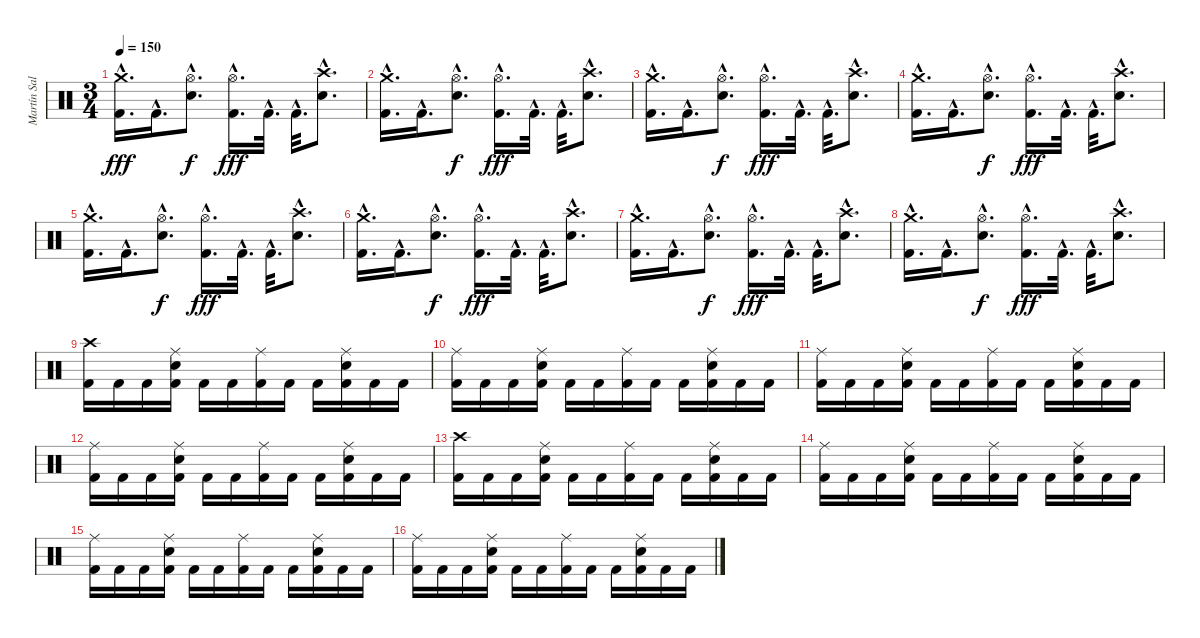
\track ("Martín Salariato" "Martín Sal") {instrument percussion}
\staff {score}
\articulation defaults
\ts (3 4)
\tempo 150
\clef neutral
\ks c
("Crash medium (hit)"{hac} "Kick (hit) 2"{hac}).16{d dy fff} "Kick (hit) 2"{hac}.16{d} ("Hi-Hat (open)"{hac} "Snare (hit) 2"{hac}).8{d dy f} ("Hi-Hat (open)"{hac} "Kick (hit) 2"{hac}).16{d dy fff} "Kick (hit) 2"{hac}.32{d} "Kick (hit) 2"{hac}.32{d} ("Crash high (hit)"{hac} "Snare (hit) 2"{hac}).8{d} |
("Crash medium (hit)"{hac} "Kick (hit) 2"{hac}).16{d} "Kick (hit) 2"{hac}.16{d} ("Hi-Hat (open)"{hac} "Snare (hit) 2"{hac}).8{d dy f} ("Hi-Hat (open)"{hac} "Kick (hit) 2"{hac}).16{d dy fff} "Kick (hit) 2"{hac}.32{d} "Kick (hit) 2"{hac}.32{d} ("Crash high (hit)"{hac} "Snare (hit) 2"{hac}).8{d} |
("Crash medium (hit)"{hac} "Kick (hit) 2"{hac}).16{d} "Kick (hit) 2"{hac}.16{d} ("Hi-Hat (open)"{hac} "Snare (hit) 2"{hac}).8{d dy f} ("Hi-Hat (open)"{hac} "Kick (hit) 2"{hac}).16{d dy fff} "Kick (hit) 2"{hac}.32{d} "Kick (hit) 2"{hac}.32{d} ("Crash high (hit)"{hac} "Snare (hit) 2"{hac}).8{d} |
("Crash medium (hit)"{hac} "Kick (hit) 2"{hac}).16{d} "Kick (hit) 2"{hac}.16{d} ("Hi-Hat (open)"{hac} "Snare (hit) 2"{hac}).8{d dy f} ("Hi-Hat (open)"{hac} "Kick (hit) 2"{hac}).16{d dy fff} "Kick (hit) 2"{hac}.32{d} "Kick (hit) 2"{hac}.32{d} ("Crash high (hit)"{hac} "Snare (hit) 2"{hac}).8{d} |
("Crash medium (hit)"{hac} "Kick (hit) 2"{hac}).16{d} "Kick (hit) 2"{hac}.16{d} ("Hi-Hat (open)"{hac} "Snare (hit) 2"{hac}).8{d dy f} ("Hi-Hat (open)"{hac} "Kick (hit) 2"{hac}).16{d dy fff} "Kick (hit) 2"{hac}.32{d} "Kick (hit) 2"{hac}.32{d} ("Crash high (hit)"{hac} "Snare (hit) 2"{hac}).8{d} |
("Crash medium (hit)"{hac} "Kick (hit) 2"{hac}).16{d} "Kick (hit) 2"{hac}.16{d} ("Hi-Hat (open)"{hac} "Snare (hit) 2"{hac}).8{d dy f} ("Hi-Hat (open)"{hac} "Kick (hit) 2"{hac}).16{d dy fff} "Kick (hit) 2"{hac}.32{d} "Kick (hit) 2"{hac}.32{d} ("Crash high (hit)"{hac} "Snare (hit) 2"{hac}).8{d} |
("Crash medium (hit)"{hac} "Kick (hit) 2"{hac}).16{d} "Kick (hit) 2"{hac}.16{d} ("Hi-Hat (open)"{hac} "Snare (hit) 2"{hac}).8{d dy f} ("Hi-Hat (open)"{hac} "Kick (hit) 2"{hac}).16{d dy fff} "Kick (hit) 2"{hac}.32{d} "Kick (hit) 2"{hac}.32{d} ("Crash high (hit)"{hac} "Snare (hit) 2"{hac}).8{d} |
("Crash medium (hit)"{hac} "Kick (hit) 2"{hac}).16{d} "Kick (hit) 2"{hac}.16{d} ("Hi-Hat (open)"{hac} "Snare (hit) 2"{hac}).8{d dy f} ("Hi-Hat (open)"{hac} "Kick (hit) 2"{hac}).16{d dy fff} "Kick (hit) 2"{hac}.32{d} "Kick (hit) 2"{hac}.32{d} ("Crash high (hit)"{hac} "Snare (hit) 2"{hac}).8{d} |
("Crash high (hit)" "Kick (hit) 2").16 "Kick (hit) 2".16 "Kick (hit) 2".16 ("Ride (middle)" "Snare (hit) 2" "Kick (hit) 2").16 "Kick (hit) 2".16 "Kick (hit) 2".16 ("Ride (middle)" "Kick (hit) 2").16 "Kick (hit) 2".16 "Kick (hit) 2".16 ("Ride (middle)" "Snare (hit) 2" "Kick (hit) 2").16 "Kick (hit) 2".16 "Kick (hit) 2".16 |
("Ride (middle)" "Kick (hit) 2").16 "Kick (hit) 2".16 "Kick (hit) 2".16 ("Ride (middle)" "Snare (hit) 2" "Kick (hit) 2").16 "Kick (hit) 2".16 "Kick (hit) 2".16 ("Ride (middle)" "Kick (hit) 2").16 "Kick (hit) 2".16 "Kick (hit) 2".16 ("Ride (middle)" "Snare (hit) 2" "Kick (hit) 2").16 "Kick (hit) 2".16 "Kick (hit) 2".16 |
("Ride (middle)" "Kick (hit) 2").16 "Kick (hit) 2".16 "Kick (hit) 2".16 ("Ride (middle)" "Snare (hit) 2" "Kick (hit) 2").16 "Kick (hit) 2".16 "Kick (hit) 2".16 ("Ride (middle)" "Kick (hit) 2").16 "Kick (hit) 2".16 "Kick (hit) 2".16 ("Ride (middle)" "Snare (hit) 2" "Kick (hit) 2").16 "Kick (hit) 2".16 "Kick (hit) 2".16 |
("Ride (middle)" "Kick (hit) 2").16 "Kick (hit) 2".16 "Kick (hit) 2".16 ("Ride (middle)" "Snare (hit) 2" "Kick (hit) 2").16 "Kick (hit) 2".16 "Kick (hit) 2".16 ("Ride (middle)" "Kick (hit) 2").16 "Kick (hit) 2".16 "Kick (hit) 2".16 ("Ride (middle)" "Snare (hit) 2" "Kick (hit) 2").16 "Kick (hit) 2".16 "Kick (hit) 2".16 |
("Crash high (hit)" "Kick (hit) 2").16 "Kick (hit) 2".16 "Kick (hit) 2".16 ("Ride (middle)" "Snare (hit) 2" "Kick (hit) 2").16 "Kick (hit) 2".16 "Kick (hit) 2".16 ("Ride (middle)" "Kick (hit) 2").16 "Kick (hit) 2".16 "Kick (hit) 2".16 ("Ride (middle)" "Snare (hit) 2" "Kick (hit) 2").16 "Kick (hit) 2".16 "Kick (hit) 2".16 |
("Ride (middle)" "Kick (hit) 2").16 "Kick (hit) 2".16 "Kick (hit) 2".16 ("Ride (middle)" "Snare (hit) 2" "Kick (hit) 2").16 "Kick (hit) 2".16 "Kick (hit) 2".16 ("Ride (middle)" "Kick (hit) 2").16 "Kick (hit) 2".16 "Kick (hit) 2".16 ("Ride (middle)" "Snare (hit) 2" "Kick (hit) 2").16 "Kick (hit) 2".16 "Kick (hit) 2".16 |
("Ride (middle)" "Kick (hit) 2").16 "Kick (hit) 2".16 "Kick (hit) 2".16 ("Ride (middle)" "Snare (hit) 2" "Kick (hit) 2").16 "Kick (hit) 2".16 "Kick (hit) 2".16 ("Ride (middle)" "Kick (hit) 2").16 "Kick (hit) 2".16 "Kick (hit) 2".16 ("Ride (middle)" "Snare (hit) 2" "Kick (hit) 2").16 "Kick (hit) 2".16 "Kick (hit) 2".16 |
("Ride (middle)" "Kick (hit) 2").16 "Kick (hit) 2".16 "Kick (hit) 2".16 ("Ride (middle)" "Snare (hit) 2" "Kick (hit) 2").16 "Kick (hit) 2".16 "Kick (hit) 2".16 ("Ride (middle)" "Kick (hit) 2").16 "Kick (hit) 2".16 "Kick (hit) 2".16 ("Ride (middle)" "Snare (hit) 2" "Kick (hit) 2").16 "Kick (hit) 2".16 "Kick (hit) 2".16
